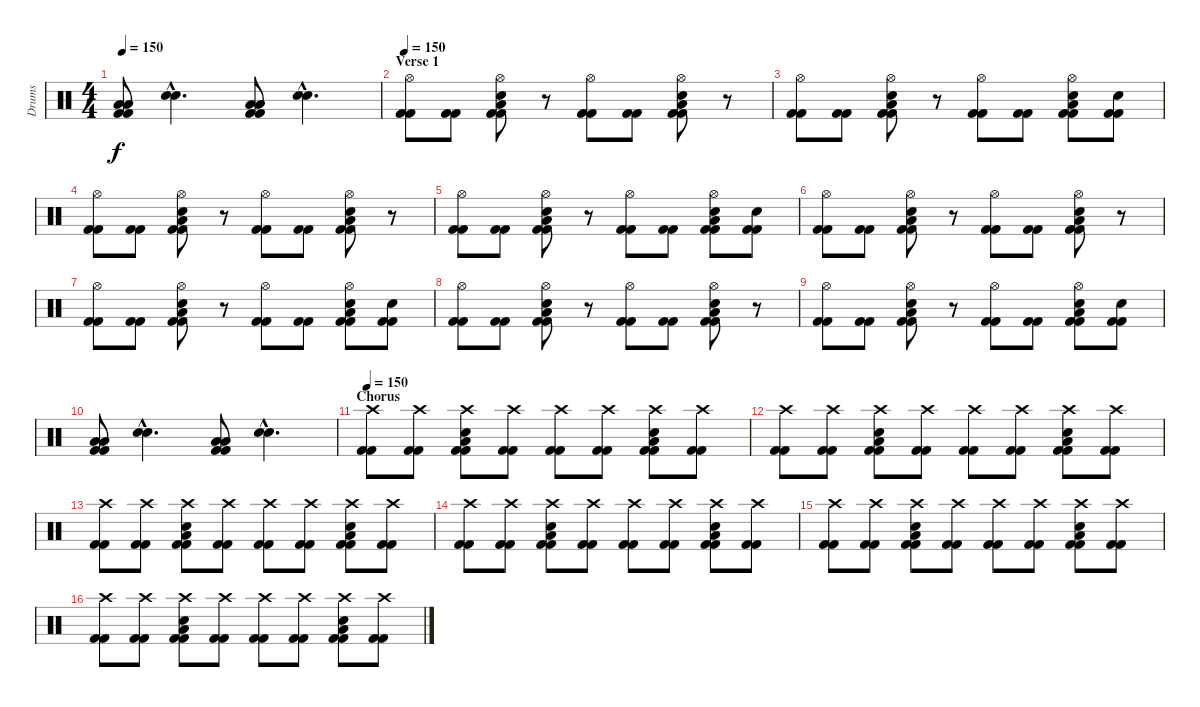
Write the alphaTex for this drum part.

\track ("Drums" "Drums") {instrument percussion}
\staff {score}
\articulation defaults
\ts (4 4)
\tempo 150
\clef neutral
\ks c
("Low Tom (hit)" "Low Tom (hit)" "Kick (hit) 2" "Kick (hit) 2").8{dy f} ("Snare (hit) 2"{hac} "Snare (hit) 2"{hac}).4{d} ("Low Tom (hit)" "Low Tom (hit)" "Kick (hit) 2" "Kick (hit) 2").8 ("Snare (hit) 2"{hac} "Snare (hit) 2"{hac}).4{d} |
\section ("" "Verse 1")
\tempo 150
("Hi-Hat (open)" "Kick (hit) 2" "Kick (hit) 2").8 ("Kick (hit) 2" "Kick (hit) 2").8 ("Hi-Hat (open)" "Low Tom (hit)" "Snare (hit) 2" "Kick (hit) 2" "Kick (hit) 2").8 r.8 ("Hi-Hat (open)" "Kick (hit) 2" "Kick (hit) 2").8 ("Kick (hit) 2" "Kick (hit) 2").8 ("Hi-Hat (open)" "Low Tom (hit)" "Snare (hit) 2" "Kick (hit) 2" "Kick (hit) 2").8 r.8 |
("Hi-Hat (open)" "Kick (hit) 2" "Kick (hit) 2").8 ("Kick (hit) 2" "Kick (hit) 2").8 ("Hi-Hat (open)" "Low Tom (hit)" "Snare (hit) 2" "Kick (hit) 2" "Kick (hit) 2").8 r.8 ("Hi-Hat (open)" "Kick (hit) 2" "Kick (hit) 2").8 ("Kick (hit) 2" "Kick (hit) 2").8 ("Hi-Hat (open)" "Low Tom (hit)" "Snare (hit) 2" "Kick (hit) 2" "Kick (hit) 2").8 ("Snare (hit) 2" "Kick (hit) 2" "Kick (hit) 2").8 |
("Hi-Hat (open)" "Kick (hit) 2" "Kick (hit) 2").8 ("Kick (hit) 2" "Kick (hit) 2").8 ("Hi-Hat (open)" "Low Tom (hit)" "Snare (hit) 2" "Kick (hit) 2" "Kick (hit) 2").8 r.8 ("Hi-Hat (open)" "Kick (hit) 2" "Kick (hit) 2").8 ("Kick (hit) 2" "Kick (hit) 2").8 ("Hi-Hat (open)" "Low Tom (hit)" "Snare (hit) 2" "Kick (hit) 2" "Kick (hit) 2").8 r.8 |
("Hi-Hat (open)" "Kick (hit) 2" "Kick (hit) 2").8 ("Kick (hit) 2" "Kick (hit) 2").8 ("Hi-Hat (open)" "Low Tom (hit)" "Snare (hit) 2" "Kick (hit) 2" "Kick (hit) 2").8 r.8 ("Hi-Hat (open)" "Kick (hit) 2" "Kick (hit) 2").8 ("Kick (hit) 2" "Kick (hit) 2").8 ("Hi-Hat (open)" "Low Tom (hit)" "Snare (hit) 2" "Kick (hit) 2" "Kick (hit) 2").8 ("Snare (hit) 2" "Kick (hit) 2" "Kick (hit) 2").8 |
("Hi-Hat (open)" "Kick (hit) 2" "Kick (hit) 2").8 ("Kick (hit) 2" "Kick (hit) 2").8 ("Hi-Hat (open)" "Low Tom (hit)" "Snare (hit) 2" "Kick (hit) 2" "Kick (hit) 2").8 r.8 ("Hi-Hat (open)" "Kick (hit) 2" "Kick (hit) 2").8 ("Kick (hit) 2" "Kick (hit) 2").8 ("Hi-Hat (open)" "Low Tom (hit)" "Snare (hit) 2" "Kick (hit) 2" "Kick (hit) 2").8 r.8 |
("Hi-Hat (open)" "Kick (hit) 2" "Kick (hit) 2").8 ("Kick (hit) 2" "Kick (hit) 2").8 ("Hi-Hat (open)" "Low Tom (hit)" "Snare (hit) 2" "Kick (hit) 2" "Kick (hit) 2").8 r.8 ("Hi-Hat (open)" "Kick (hit) 2" "Kick (hit) 2").8 ("Kick (hit) 2" "Kick (hit) 2").8 ("Hi-Hat (open)" "Low Tom (hit)" "Snare (hit) 2" "Kick (hit) 2" "Kick (hit) 2").8 ("Snare (hit) 2" "Kick (hit) 2" "Kick (hit) 2").8 |
("Hi-Hat (open)" "Kick (hit) 2" "Kick (hit) 2").8 ("Kick (hit) 2" "Kick (hit) 2").8 ("Hi-Hat (open)" "Low Tom (hit)" "Snare (hit) 2" "Kick (hit) 2" "Kick (hit) 2").8 r.8 ("Hi-Hat (open)" "Kick (hit) 2" "Kick (hit) 2").8 ("Kick (hit) 2" "Kick (hit) 2").8 ("Hi-Hat (open)" "Low Tom (hit)" "Snare (hit) 2" "Kick (hit) 2" "Kick (hit) 2").8 r.8 |
("Hi-Hat (open)" "Kick (hit) 2" "Kick (hit) 2").8 ("Kick (hit) 2" "Kick (hit) 2").8 ("Hi-Hat (open)" "Low Tom (hit)" "Snare (hit) 2" "Kick (hit) 2" "Kick (hit) 2").8 r.8 ("Hi-Hat (open)" "Kick (hit) 2" "Kick (hit) 2").8 ("Kick (hit) 2" "Kick (hit) 2").8 ("Hi-Hat (open)" "Low Tom (hit)" "Snare (hit) 2" "Kick (hit) 2" "Kick (hit) 2").8 ("Snare (hit) 2" "Kick (hit) 2" "Kick (hit) 2").8 |
("Low Tom (hit)" "Low Tom (hit)" "Kick (hit) 2" "Kick (hit) 2").8 ("Snare (hit) 2"{hac} "Snare (hit) 2"{hac}).4{d} ("Low Tom (hit)" "Low Tom (hit)" "Kick (hit) 2" "Kick (hit) 2").8 ("Snare (hit) 2"{hac} "Snare (hit) 2"{hac}).4{d} |
\section ("" "Chorus")
\tempo 150
("Crash high (hit)" "Kick (hit) 2" "Kick (hit) 2").8 ("Crash high (hit)" "Kick (hit) 2" "Kick (hit) 2").8 ("Crash high (hit)" "Low Tom (hit)" "Snare (hit) 2" "Kick (hit) 2" "Kick (hit) 2").8 ("Crash high (hit)" "Kick (hit) 2" "Kick (hit) 2").8 ("Crash high (hit)" "Kick (hit) 2" "Kick (hit) 2").8 ("Crash high (hit)" "Kick (hit) 2" "Kick (hit) 2").8 ("Crash high (hit)" "Low Tom (hit)" "Snare (hit) 2" "Kick (hit) 2" "Kick (hit) 2").8 ("Crash high (hit)" "Kick (hit) 2" "Kick (hit) 2").8 |
("Crash high (hit)" "Kick (hit) 2" "Kick (hit) 2").8 ("Crash high (hit)" "Kick (hit) 2" "Kick (hit) 2").8 ("Crash high (hit)" "Low Tom (hit)" "Snare (hit) 2" "Kick (hit) 2" "Kick (hit) 2").8 ("Crash high (hit)" "Kick (hit) 2" "Kick (hit) 2").8 ("Crash high (hit)" "Kick (hit) 2" "Kick (hit) 2").8 ("Crash high (hit)" "Kick (hit) 2" "Kick (hit) 2").8 ("Crash high (hit)" "Low Tom (hit)" "Snare (hit) 2" "Kick (hit) 2" "Kick (hit) 2").8 ("Crash high (hit)" "Kick (hit) 2" "Kick (hit) 2").8 |
("Crash high (hit)" "Kick (hit) 2" "Kick (hit) 2").8 ("Crash high (hit)" "Kick (hit) 2" "Kick (hit) 2").8 ("Crash high (hit)" "Low Tom (hit)" "Snare (hit) 2" "Kick (hit) 2" "Kick (hit) 2").8 ("Crash high (hit)" "Kick (hit) 2" "Kick (hit) 2").8 ("Crash high (hit)" "Kick (hit) 2" "Kick (hit) 2").8 ("Crash high (hit)" "Kick (hit) 2" "Kick (hit) 2").8 ("Crash high (hit)" "Low Tom (hit)" "Snare (hit) 2" "Kick (hit) 2" "Kick (hit) 2").8 ("Crash high (hit)" "Kick (hit) 2" "Kick (hit) 2").8 |
("Crash high (hit)" "Kick (hit) 2" "Kick (hit) 2").8 ("Crash high (hit)" "Kick (hit) 2" "Kick (hit) 2").8 ("Crash high (hit)" "Low Tom (hit)" "Snare (hit) 2" "Kick (hit) 2" "Kick (hit) 2").8 ("Crash high (hit)" "Kick (hit) 2" "Kick (hit) 2").8 ("Crash high (hit)" "Kick (hit) 2" "Kick (hit) 2").8 ("Crash high (hit)" "Kick (hit) 2" "Kick (hit) 2").8 ("Crash high (hit)" "Low Tom (hit)" "Snare (hit) 2" "Kick (hit) 2" "Kick (hit) 2").8 ("Crash high (hit)" "Kick (hit) 2" "Kick (hit) 2").8 |
("Crash high (hit)" "Kick (hit) 2" "Kick (hit) 2").8 ("Crash high (hit)" "Kick (hit) 2" "Kick (hit) 2").8 ("Crash high (hit)" "Low Tom (hit)" "Snare (hit) 2" "Kick (hit) 2" "Kick (hit) 2").8 ("Crash high (hit)" "Kick (hit) 2" "Kick (hit) 2").8 ("Crash high (hit)" "Kick (hit) 2" "Kick (hit) 2").8 ("Crash high (hit)" "Kick (hit) 2" "Kick (hit) 2").8 ("Crash high (hit)" "Low Tom (hit)" "Snare (hit) 2" "Kick (hit) 2" "Kick (hit) 2").8 ("Crash high (hit)" "Kick (hit) 2" "Kick (hit) 2").8 |
("Crash high (hit)" "Kick (hit) 2" "Kick (hit) 2").8 ("Crash high (hit)" "Kick (hit) 2" "Kick (hit) 2").8 ("Crash high (hit)" "Low Tom (hit)" "Snare (hit) 2" "Kick (hit) 2" "Kick (hit) 2").8 ("Crash high (hit)" "Kick (hit) 2" "Kick (hit) 2").8 ("Crash high (hit)" "Kick (hit) 2" "Kick (hit) 2").8 ("Crash high (hit)" "Kick (hit) 2" "Kick (hit) 2").8 ("Crash high (hit)" "Low Tom (hit)" "Snare (hit) 2" "Kick (hit) 2" "Kick (hit) 2").8 ("Crash high (hit)" "Kick (hit) 2" "Kick (hit) 2").8
